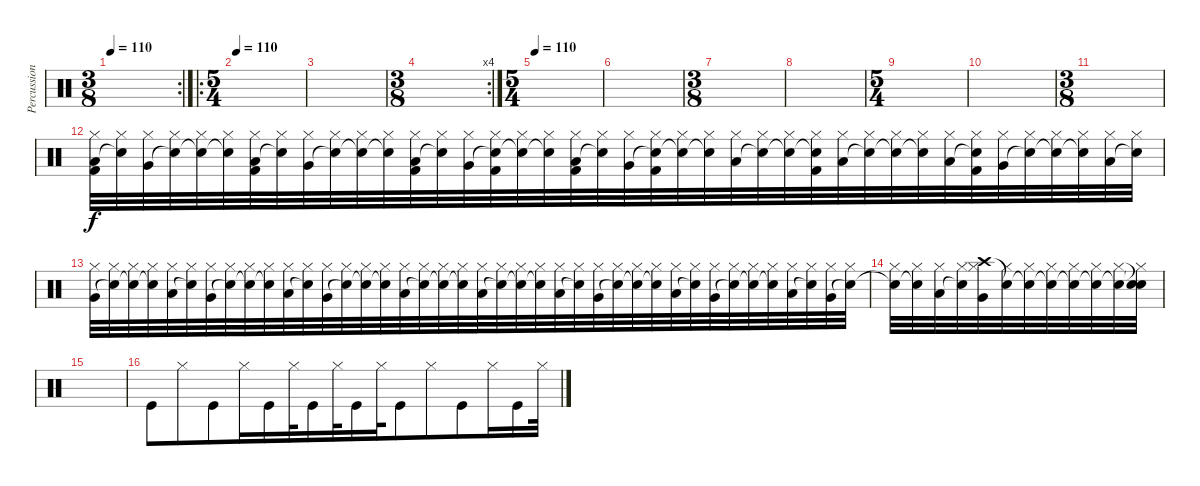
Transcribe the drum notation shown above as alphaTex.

\track ("Percussion" "Percussion") {instrument percussion}
\staff {score}
\articulation defaults
\rc 2
\ts (3 8)
\tempo 110
\clef neutral
\ks c
|
\ro
\ts (5 4)
\tempo 110
|
|
\rc 4
\ts (3 8)
|
\ts (5 4)
\tempo 110
|
|
\ts (3 8)
|
|
\ts (5 4)
|
|
\ts (3 8)
|
("Low Floor Tom (hit)" "Hi-Hat (closed)" "Kick (hit) 2").32{dy f} ("Snare (hit)"{t} "Hi-Hat (closed)").32 ("Very Low Tom (hit)" "Hi-Hat (closed)").32 ("Snare (hit)"{t} "Hi-Hat (closed)").32 ("Snare (hit)"{t} "Hi-Hat (closed)").32 ("Snare (hit)"{t} "Hi-Hat (closed)").32 ("Low Floor Tom (hit)" "Hi-Hat (closed)" "Kick (hit) 2").32 ("Snare (hit)"{t} "Hi-Hat (closed)").32 ("Very Low Tom (hit)" "Hi-Hat (closed)").32 ("Snare (hit)"{t} "Hi-Hat (closed)").32 ("Snare (hit)"{t} "Hi-Hat (closed)").32 ("Snare (hit)"{t} "Hi-Hat (closed)").32 ("Low Floor Tom (hit)" "Hi-Hat (closed)" "Kick (hit) 2").32 ("Snare (hit)"{t} "Hi-Hat (closed)").32 ("Very Low Tom (hit)" "Hi-Hat (closed)").32 ("Snare (hit)"{t} "Hi-Hat (closed)" "Kick (hit) 2").32 ("Snare (hit)"{t} "Hi-Hat (closed)").32 ("Snare (hit)"{t} "Hi-Hat (closed)").32 ("Low Floor Tom (hit)" "Hi-Hat (closed)" "Kick (hit) 2").32 ("Snare (hit)"{t} "Hi-Hat (closed)").32 ("Very Low Tom (hit)" "Hi-Hat (closed)").32 ("Snare (hit)"{t} "Hi-Hat (closed)" "Kick (hit) 2").32 ("Snare (hit)"{t} "Hi-Hat (closed)").32 ("Snare (hit)"{t} "Hi-Hat (closed)").32 ("Low Floor Tom (hit)" "Hi-Hat (closed)").32 ("Snare (hit)"{t} "Hi-Hat (closed)").32 ("Snare (hit)"{t} "Hi-Hat (closed)").32 ("Snare (hit)"{t} "Hi-Hat (closed)" "Kick (hit) 2").32 ("Low Floor Tom (hit)" "Hi-Hat (closed)").32 ("Snare (hit)"{t} "Hi-Hat (closed)").32 ("Snare (hit)"{t} "Hi-Hat (closed)").32 ("Snare (hit)"{t} "Hi-Hat (closed)").32 ("Low Floor Tom (hit)" "Hi-Hat (closed)").32 ("Snare (hit)"{t} "Hi-Hat (closed)" "Kick (hit) 2").32 ("Very Low Tom (hit)" "Hi-Hat (closed)").32 ("Snare (hit)"{t} "Hi-Hat (closed)").32 ("Snare (hit)"{t} "Hi-Hat (closed)").32 ("Snare (hit)"{t} "Hi-Hat (closed)").32 ("Low Floor Tom (hit)" "Hi-Hat (closed)").32 ("Snare (hit)"{t} "Hi-Hat (closed)").32 |
("Very Low Tom (hit)" "Hi-Hat (closed)").32 ("Snare (hit)"{t} "Hi-Hat (closed)").32 ("Snare (hit)"{t} "Hi-Hat (closed)").32 ("Snare (hit)"{t} "Hi-Hat (closed)").32 ("Low Floor Tom (hit)" "Hi-Hat (closed)").32 ("Snare (hit)"{t} "Hi-Hat (closed)").32 ("Very Low Tom (hit)" "Hi-Hat (closed)").32 ("Snare (hit)"{t} "Hi-Hat (closed)").32 ("Snare (hit)"{t} "Hi-Hat (closed)").32 ("Snare (hit)"{t} "Hi-Hat (closed)").32 ("Low Floor Tom (hit)" "Hi-Hat (closed)").32 ("Snare (hit)"{t} "Hi-Hat (closed)").32 ("Very Low Tom (hit)" "Hi-Hat (closed)").32 ("Snare (hit)"{t} "Hi-Hat (closed)").32 ("Snare (hit)"{t} "Hi-Hat (closed)").32 ("Snare (hit)"{t} "Hi-Hat (closed)").32 ("Low Floor Tom (hit)" "Hi-Hat (closed)").32 ("Snare (hit)"{t} "Hi-Hat (closed)").32 ("Snare (hit)"{t} "Hi-Hat (closed)").32 ("Snare (hit)"{t} "Hi-Hat (closed)").32 ("Low Floor Tom (hit)" "Hi-Hat (closed)").32 ("Snare (hit)"{t} "Hi-Hat (closed)").32 ("Snare (hit)"{t} "Hi-Hat (closed)").32 ("Snare (hit)"{t} "Hi-Hat (closed)").32 ("Low Floor Tom (hit)" "Hi-Hat (closed)").32 ("Snare (hit)"{t} "Hi-Hat (closed)").32 ("Very Low Tom (hit)" "Hi-Hat (closed)").32 ("Snare (hit)"{t} "Hi-Hat (closed)").32 ("Snare (hit)"{t} "Hi-Hat (closed)").32 ("Snare (hit)"{t} "Hi-Hat (closed)").32 ("Low Floor Tom (hit)" "Hi-Hat (closed)").32 ("Snare (hit)"{t} "Hi-Hat (closed)").32 ("Very Low Tom (hit)" "Hi-Hat (closed)").32 ("Snare (hit)"{t} "Hi-Hat (closed)").32 ("Snare (hit)"{t} "Hi-Hat (closed)").32 ("Snare (hit)"{t} "Hi-Hat (closed)").32 ("Low Floor Tom (hit)" "Hi-Hat (closed)").32 ("Snare (hit)"{t} "Hi-Hat (closed)").32 ("Very Low Tom (hit)" "Hi-Hat (closed)").32 ("Snare (hit)"{t} "Hi-Hat (closed)").32 |
("Snare (hit)"{t} "Hi-Hat (closed)").32 ("Snare (hit)"{t} "Hi-Hat (closed)").32 ("Low Floor Tom (hit)" "Hi-Hat (closed)").32 ("Snare (hit)"{t} "Hi-Hat (closed)").32 ("Crash high (hit)" "Very Low Tom (hit)" "Hi-Hat (closed)").32 ("Snare (hit)"{t} "Hi-Hat (closed)").32 ("Snare (hit)"{t} "Hi-Hat (closed)").32 ("Snare (hit)"{t} "Hi-Hat (closed)").32 ("Snare (hit)"{t} "Hi-Hat (closed)").32 ("Snare (hit)"{t} "Hi-Hat (closed)").32 ("Snare (hit)"{t} "Hi-Hat (closed)").32 ("Snare (hit)"{t} "Snare (hit)"{t} "Hi-Hat (closed)").32 |
|
"Kick (hit)".8 "Hi-Hat (closed)".8 "Kick (hit)".8 "Hi-Hat (closed)".16 "Kick (hit)".16 "Hi-Hat (closed)".32 "Kick (hit)".16 "Hi-Hat (closed)".32 "Kick (hit)".16 "Hi-Hat (closed)".32 "Kick (hit)".8 "Hi-Hat (closed)".8 "Kick (hit)".8 "Hi-Hat (closed)".16 "Kick (hit)".16 "Hi-Hat (closed)".32
